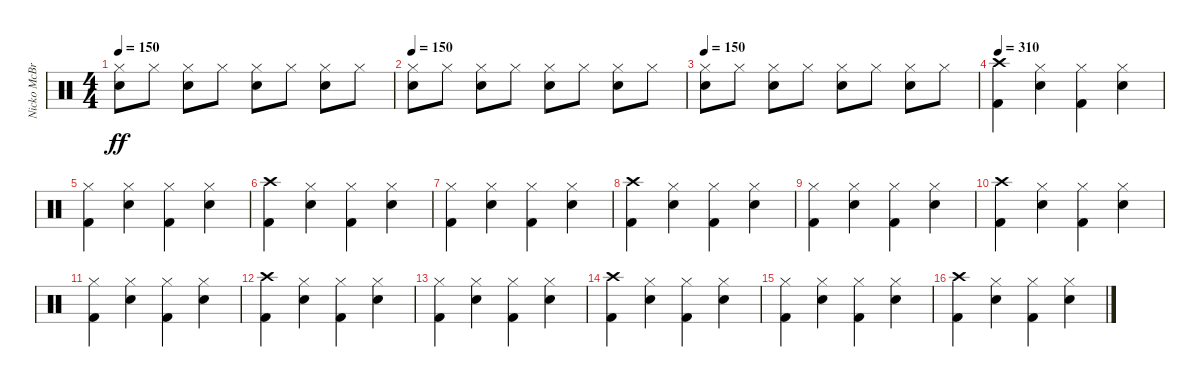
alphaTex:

\track ("Nicko McBrain" "Nicko McBr") {instrument percussion}
\staff {score}
\articulation defaults
\ts (4 4)
\tempo 150
\clef neutral
\ks c
("Snare (hit) 2" "Hi-Hat (closed)").8{dy ff} "Hi-Hat (closed)".8 ("Snare (hit) 2" "Hi-Hat (closed)").8 "Hi-Hat (closed)".8 ("Snare (hit) 2" "Hi-Hat (closed)").8 "Hi-Hat (closed)".8 ("Snare (hit) 2" "Hi-Hat (closed)").8 "Hi-Hat (closed)".8 |
\tempo 150
("Snare (hit) 2" "Hi-Hat (closed)").8 "Hi-Hat (closed)".8 ("Snare (hit) 2" "Hi-Hat (closed)").8 "Hi-Hat (closed)".8 ("Snare (hit) 2" "Hi-Hat (closed)").8 "Hi-Hat (closed)".8 ("Snare (hit) 2" "Hi-Hat (closed)").8 "Hi-Hat (closed)".8 |
\tempo 150
("Snare (hit) 2" "Hi-Hat (closed)").8 "Hi-Hat (closed)".8 ("Snare (hit) 2" "Hi-Hat (closed)").8 "Hi-Hat (closed)".8 ("Snare (hit) 2" "Hi-Hat (closed)").8 "Hi-Hat (closed)".8 ("Snare (hit) 2" "Hi-Hat (closed)").8 "Hi-Hat (closed)".8 |
\tempo 310
("Kick (hit) 2" "Crash high (hit)").4 ("Snare (hit) 2" "Hi-Hat (closed)").4 ("Kick (hit) 2" "Hi-Hat (closed)").4 ("Snare (hit) 2" "Hi-Hat (closed)").4 |
("Kick (hit) 2" "Hi-Hat (closed)").4 ("Snare (hit) 2" "Hi-Hat (closed)").4 ("Kick (hit) 2" "Hi-Hat (closed)").4 ("Snare (hit) 2" "Hi-Hat (closed)").4 |
("Kick (hit) 2" "Crash high (hit)").4 ("Snare (hit) 2" "Hi-Hat (closed)").4 ("Kick (hit) 2" "Hi-Hat (closed)").4 ("Snare (hit) 2" "Hi-Hat (closed)").4 |
("Kick (hit) 2" "Hi-Hat (closed)").4 ("Snare (hit) 2" "Hi-Hat (closed)").4 ("Kick (hit) 2" "Hi-Hat (closed)").4 ("Snare (hit) 2" "Hi-Hat (closed)").4 |
("Kick (hit) 2" "Crash high (hit)").4 ("Snare (hit) 2" "Hi-Hat (closed)").4 ("Kick (hit) 2" "Hi-Hat (closed)").4 ("Snare (hit) 2" "Hi-Hat (closed)").4 |
("Kick (hit) 2" "Hi-Hat (closed)").4 ("Snare (hit) 2" "Hi-Hat (closed)").4 ("Kick (hit) 2" "Hi-Hat (closed)").4 ("Snare (hit) 2" "Hi-Hat (closed)").4 |
("Kick (hit) 2" "Crash high (hit)").4 ("Snare (hit) 2" "Hi-Hat (closed)").4 ("Kick (hit) 2" "Hi-Hat (closed)").4 ("Snare (hit) 2" "Hi-Hat (closed)").4 |
("Kick (hit) 2" "Hi-Hat (closed)").4 ("Snare (hit) 2" "Hi-Hat (closed)").4 ("Kick (hit) 2" "Hi-Hat (closed)").4 ("Snare (hit) 2" "Hi-Hat (closed)").4 |
("Kick (hit) 2" "Crash high (hit)").4 ("Snare (hit) 2" "Hi-Hat (closed)").4 ("Kick (hit) 2" "Hi-Hat (closed)").4 ("Snare (hit) 2" "Hi-Hat (closed)").4 |
("Kick (hit) 2" "Hi-Hat (closed)").4 ("Snare (hit) 2" "Hi-Hat (closed)").4 ("Kick (hit) 2" "Hi-Hat (closed)").4 ("Snare (hit) 2" "Hi-Hat (closed)").4 |
("Kick (hit) 2" "Crash high (hit)").4 ("Snare (hit) 2" "Hi-Hat (closed)").4 ("Kick (hit) 2" "Hi-Hat (closed)").4 ("Snare (hit) 2" "Hi-Hat (closed)").4 |
("Kick (hit) 2" "Hi-Hat (closed)").4 ("Snare (hit) 2" "Hi-Hat (closed)").4 ("Kick (hit) 2" "Hi-Hat (closed)").4 ("Snare (hit) 2" "Hi-Hat (closed)").4 |
("Kick (hit) 2" "Crash high (hit)").4 ("Snare (hit) 2" "Hi-Hat (closed)").4 ("Kick (hit) 2" "Hi-Hat (closed)").4 ("Snare (hit) 2" "Hi-Hat (closed)").4
